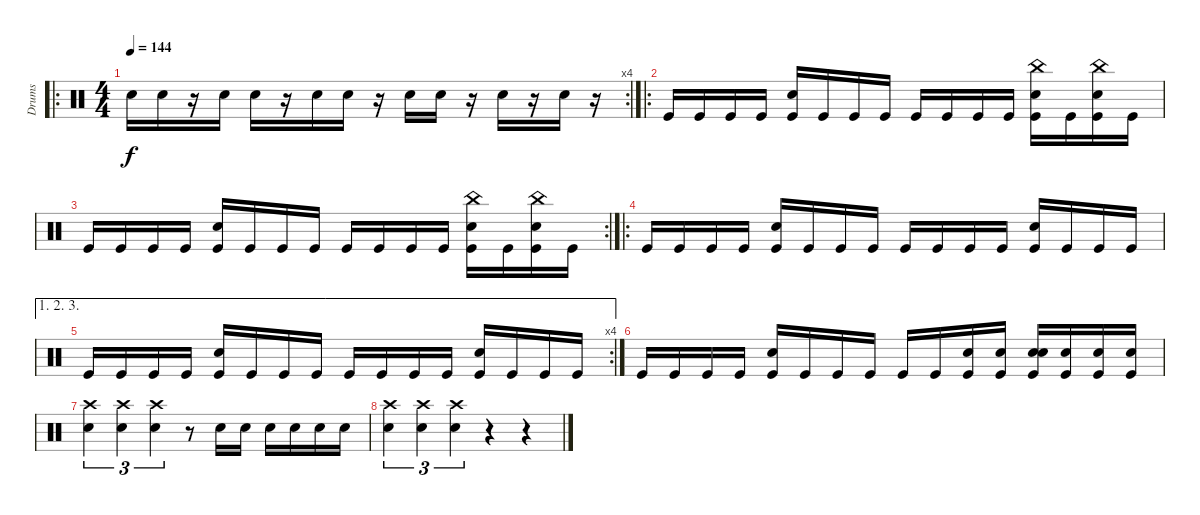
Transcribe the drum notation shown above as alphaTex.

\track ("Drums" "Drums") {instrument percussion}
\staff {score}
\articulation defaults
\ro
\rc 4
\ts (4 4)
\tempo 144
\clef neutral
\ks c "Snare (hit) 2".16{dy f} "Snare (hit) 2".16
r.16 "Snare (hit) 2".16 "Snare (hit) 2".16 r.16 "Snare (hit) 2".16 "Snare (hit) 2".16 r.16 "Snare (hit) 2".16 "Snare (hit) 2".16 r.16 "Snare (hit) 2".16 r.16 "Snare (hit) 2".16 r.16 |
\ro "Kick (hit)".16 "Kick (hit)".16 "Kick (hit)".16 "Kick (hit)".16
("Snare (hit) 2" "Kick (hit)").16 "Kick (hit)".16 "Kick (hit)".16 "Kick (hit)".16 "Kick (hit)".16 "Kick (hit)".16 "Kick (hit)".16 "Kick (hit)".16 ("China (hit)" "Snare (hit) 2" "Kick (hit)").16 "Kick (hit)".16 ("China (hit)" "Snare (hit) 2" "Kick (hit)").16 "Kick (hit)".16 |
\rc 2 "Kick (hit)".16 "Kick (hit)".16 "Kick (hit)".16 "Kick (hit)".16
("Snare (hit) 2" "Kick (hit)").16 "Kick (hit)".16 "Kick (hit)".16 "Kick (hit)".16 "Kick (hit)".16 "Kick (hit)".16 "Kick (hit)".16 "Kick (hit)".16 ("China (hit)" "Snare (hit) 2" "Kick (hit)").16 "Kick (hit)".16 ("China (hit)" "Snare (hit) 2" "Kick (hit)").16 "Kick (hit)".16 |
\ro "Kick (hit)".16 "Kick (hit)".16 "Kick (hit)".16 "Kick (hit)".16
("Snare (hit) 2" "Kick (hit)").16 "Kick (hit)".16 "Kick (hit)".16 "Kick (hit)".16 "Kick (hit)".16 "Kick (hit)".16 "Kick (hit)".16 "Kick (hit)".16 ("Snare (hit) 2" "Kick (hit)").16 "Kick (hit)".16 "Kick (hit)".16 "Kick (hit)".16 |
\ae (1 2 3)
\rc 4 "Kick (hit)".16 "Kick (hit)".16 "Kick (hit)".16 "Kick (hit)".16
("Snare (hit) 2" "Kick (hit)").16 "Kick (hit)".16 "Kick (hit)".16 "Kick (hit)".16 "Kick (hit)".16 "Kick (hit)".16 "Kick (hit)".16 "Kick (hit)".16 ("Snare (hit) 2" "Kick (hit)").16 "Kick (hit)".16 "Kick (hit)".16 "Kick (hit)".16 |
"Kick (hit)".16 "Kick (hit)".16 "Kick (hit)".16 "Kick (hit)".16 ("Snare (hit) 2" "Kick (hit)").16 "Kick (hit)".16 "Kick (hit)".16 "Kick (hit)".16 "Kick (hit)".16 "Kick (hit)".16 ("Snare (hit) 2" "Kick (hit)").16 ("Snare (hit) 2" "Kick (hit)").16 ("Snare (hit) 2" "Snare (hit) 2" "Kick (hit)").16 ("Snare (hit) 2" "Kick (hit)").16 ("Snare (hit) 2" "Kick (hit)").16 ("Snare (hit) 2" "Kick (hit)").16 |
("Crash high (hit)" "Snare (hit) 2").4{tu (3 2)} ("Crash high (hit)" "Snare (hit) 2").4{tu (3 2)} ("Crash high (hit)" "Snare (hit) 2").4{tu (3 2)} r.8 "Snare (hit) 2".16 "Snare (hit) 2".16 "Snare (hit) 2".16 "Snare (hit) 2".16 "Snare (hit) 2".16 "Snare (hit) 2".16 |
("Crash high (hit)" "Snare (hit) 2").4{tu (3 2)} ("Crash high (hit)" "Snare (hit) 2").4{tu (3 2)} ("Crash high (hit)" "Snare (hit) 2").4{tu (3 2)} r.4 r.4
